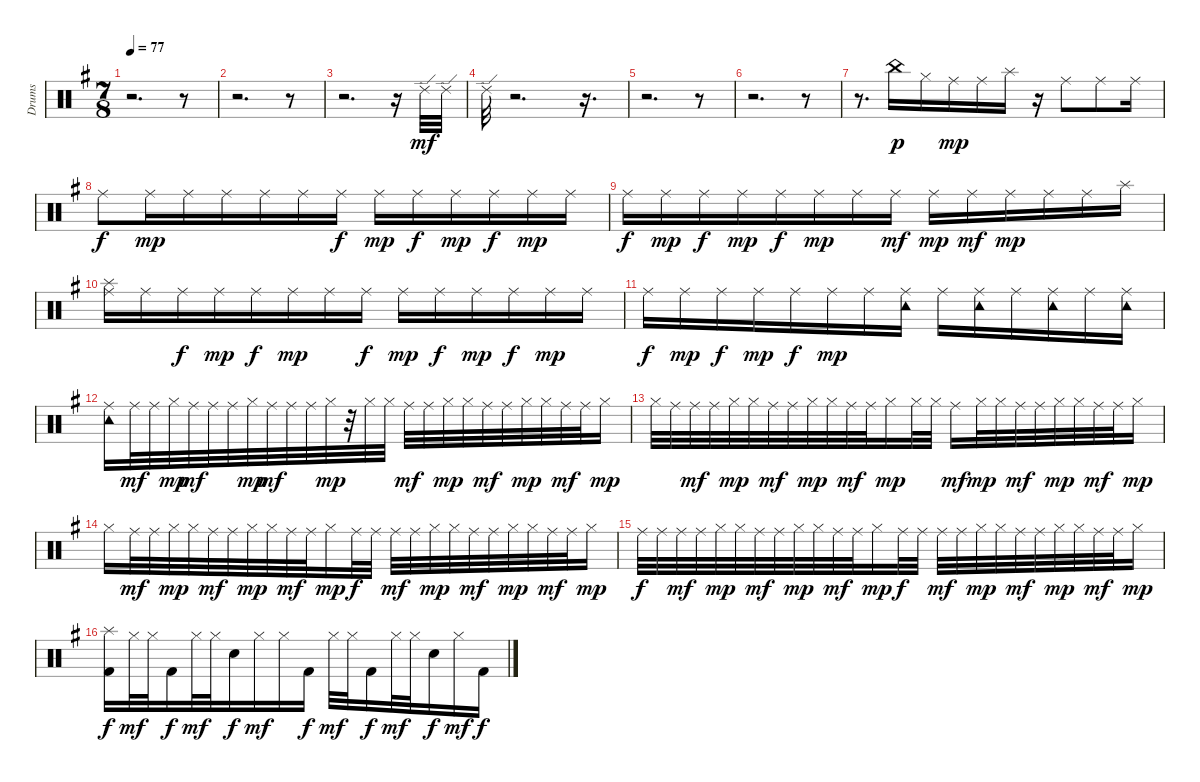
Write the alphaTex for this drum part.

\track ("Drums" "Drums") {instrument percussion}
\staff {score}
\articulation defaults
\ts (7 8)
\tempo 77
\clef neutral
\ks g
r.2{d dy f} r.8 |
r.2{d} r.8 |
r.2{d} r.16 "Ride (edge) 2".32{dy mf} "Ride (edge) 2".32 |
"Ride (edge) 2".32 r.2{d} r.16{d} |
r.2{d} r.8 |
r.2{d} r.8 |
r.8{d} "China (hit)".16{dy p} "Hi-Hat (closed)".16 "Ride (middle)".16{dy mp} "Ride (middle)".16 "Splash (hit)".16 r.16 "Ride (middle)".8 "Ride (middle)".8 "Ride (middle)".16 |
"Ride (middle)".8{dy f} "Ride (middle)".16{dy mp} "Ride (middle)".16 "Ride (middle)".16 "Ride (middle)".16 "Ride (middle)".16 "Ride (middle)".16{dy f} "Ride (middle)".16{dy mp} "Ride (middle)".16{dy f} "Ride (middle)".16{dy mp} "Ride (middle)".16{dy f} "Ride (middle)".16{dy mp} "Ride (middle)".16 |
"Ride (middle)".16{dy f} "Ride (middle)".16{dy mp} "Ride (middle)".16{dy f} "Ride (middle)".16{dy mp} "Ride (middle)".16{dy f} "Ride (middle)".16{dy mp} "Ride (middle)".16 "Ride (middle)".16{dy mf} "Ride (middle)".16{dy mp} "Ride (middle)".16{dy mf} "Ride (middle)".16{dy mp} "Ride (middle)".16 "Ride (middle)".16 "Splash (hit)".16 |
("Ride (middle)" "Splash (hit)").16 "Ride (middle)".16 "Ride (middle)".16{dy f} "Ride (middle)".16{dy mp} "Ride (middle)".16{dy f} "Ride (middle)".16{dy mp} "Ride (middle)".16 "Ride (middle)".16{dy f} "Ride (middle)".16{dy mp} "Ride (middle)".16{dy f} "Ride (middle)".16{dy mp} "Ride (middle)".16{dy f} "Ride (middle)".16{dy mp} "Ride (middle)".16 |
"Ride (middle)".16{dy f} "Ride (middle)".16{dy mp} "Ride (middle)".16{dy f} "Ride (middle)".16{dy mp} "Ride (middle)".16{dy f} "Ride (middle)".16{dy mp} "Ride (middle)".16 ("Ride (middle)" "Tambourine (hit)").16 "Ride (middle)".16 ("Ride (middle)" "Tambourine (hit)").16 "Ride (middle)".16 ("Ride (middle)" "Tambourine (hit)").16 "Ride (middle)".16 ("Ride (middle)" "Tambourine (hit)").16 |
("Ride (middle)" "Tambourine (hit)").16 "Ride (middle)".32{dy mf} "Ride (middle)".32 "Hi-Hat (closed)".32{dy mp} "Ride (middle)".32{dy mf} "Ride (middle)".32 "Ride (middle)".32 "Hi-Hat (closed)".32{dy mp} "Ride (middle)".32{dy mf} "Ride (middle)".32 "Ride (middle)".32 "Hi-Hat (closed)".32{dy mp} r.32 "Hi-Hat (closed)".32 "Hi-Hat (closed)".32 "Ride (middle)".32{dy mf} "Ride (middle)".32 "Hi-Hat (closed)".32{dy mp} "Hi-Hat (closed)".32 "Ride (middle)".32{dy mf} "Ride (middle)".32 "Hi-Hat (closed)".32{dy mp} "Hi-Hat (closed)".32 "Ride (middle)".32{dy mf} "Ride (middle)".32 "Hi-Hat (closed)".16{dy mp} |
"Hi-Hat (closed)".32 "Ride (middle)".32 "Ride (middle)".32{dy mf} "Ride (middle)".32 "Hi-Hat (closed)".32{dy mp} "Hi-Hat (closed)".32 "Ride (middle)".32{dy mf} "Ride (middle)".32 "Hi-Hat (closed)".32{dy mp} "Hi-Hat (closed)".32 "Ride (middle)".32{dy mf} "Ride (middle)".32 "Hi-Hat (closed)".16{dy mp} "Hi-Hat (closed)".32 "Hi-Hat (closed)".32 "Ride (middle)".16{dy mf} "Hi-Hat (closed)".32{dy mp} "Hi-Hat (closed)".32 "Ride (middle)".32{dy mf} "Ride (middle)".32 "Hi-Hat (closed)".32{dy mp} "Hi-Hat (closed)".32 "Ride (middle)".32{dy mf} "Ride (middle)".32 "Hi-Hat (closed)".16{dy mp} |
"Hi-Hat (closed)".16 "Ride (middle)".32{dy mf} "Ride (middle)".32 "Hi-Hat (closed)".32{dy mp} "Hi-Hat (closed)".32 "Ride (middle)".32{dy mf} "Ride (middle)".32 "Hi-Hat (closed)".32{dy mp} "Hi-Hat (closed)".32 "Ride (middle)".32{dy mf} "Ride (middle)".32 "Hi-Hat (closed)".16{dy mp} "Ride (middle)".32{dy f} "Ride (middle)".32 "Ride (middle)".32{dy mf} "Ride (middle)".32 "Hi-Hat (closed)".32{dy mp} "Hi-Hat (closed)".32 "Ride (middle)".32{dy mf} "Ride (middle)".32 "Hi-Hat (closed)".32{dy mp} "Hi-Hat (closed)".32 "Ride (middle)".32{dy mf} "Ride (middle)".32 "Hi-Hat (closed)".16{dy mp} |
"Ride (middle)".32{dy f} "Ride (middle)".32 "Ride (middle)".32{dy mf} "Ride (middle)".32 "Hi-Hat (closed)".32{dy mp} "Hi-Hat (closed)".32 "Ride (middle)".32{dy mf} "Ride (middle)".32 "Hi-Hat (closed)".32{dy mp} "Hi-Hat (closed)".32 "Ride (middle)".32{dy mf} "Ride (middle)".32 "Hi-Hat (closed)".16{dy mp} "Ride (middle)".32{dy f} "Ride (middle)".32 "Ride (middle)".32{dy mf} "Ride (middle)".32 "Hi-Hat (closed)".32{dy mp} "Hi-Hat (closed)".32 "Ride (middle)".32{dy mf} "Ride (middle)".32 "Hi-Hat (closed)".32{dy mp} "Hi-Hat (closed)".32 "Ride (middle)".32{dy mf} "Ride (middle)".32 "Hi-Hat (closed)".16{dy mp} |
("Kick (hit) 2" "Splash (hit)").16{dy f} "Hi-Hat (closed)".32{dy mf} "Hi-Hat (closed)".32 "Kick (hit) 2".16{dy f} "Hi-Hat (closed)".32{dy mf} "Hi-Hat (closed)".32 "Electric Snare (hit)".16{dy f} "Hi-Hat (closed)".16{dy mf} "Hi-Hat (closed)".16 "Kick (hit) 2".16{dy f} "Hi-Hat (closed)".32{dy mf} "Hi-Hat (closed)".32 "Kick (hit) 2".16{dy f} "Hi-Hat (closed)".32{dy mf} "Hi-Hat (closed)".32 "Electric Snare (hit)".16{dy f} "Hi-Hat (closed)".16{dy mf} "Kick (hit) 2".16{dy f}
